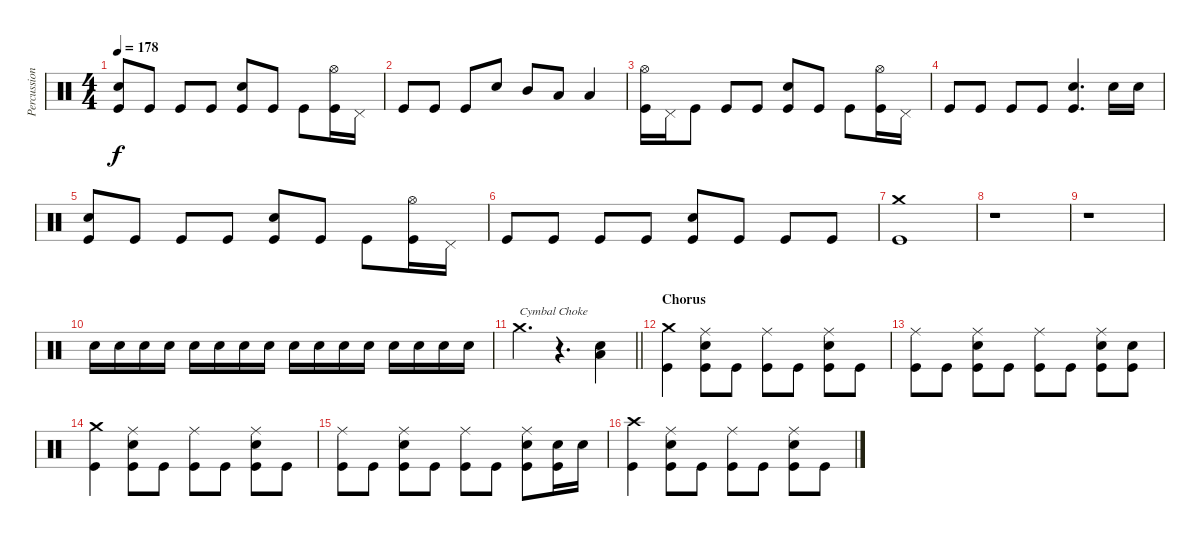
\track ("Percussion" "Percussion") {instrument percussion}
\staff {score}
\articulation defaults
\ts (4 4)
\tempo 178
\clef neutral
\ks c
("Electric Snare (hit)" "Kick (hit)").8{dy f} "Kick (hit)".8 "Kick (hit)".8 "Kick (hit)".8 ("Electric Snare (hit)" "Kick (hit)").8 "Kick (hit)".8 "Kick (hit)".8 ("Hi-Hat (open)" "Kick (hit)").16 "Pedal Hi-Hat (hit)".16 |
"Kick (hit)".8 "Kick (hit)".8 "Kick (hit)".8 "Electric Snare (hit)".8 "Mid Tom (hit)".8 "Low Tom (hit)".8 "Low Floor Tom (hit)".4 |
("Hi-Hat (open)" "Kick (hit)").16 "Pedal Hi-Hat (hit)".16 "Kick (hit)".8 "Kick (hit)".8 "Kick (hit)".8 ("Electric Snare (hit)" "Kick (hit)").8 "Kick (hit)".8 "Kick (hit)".8 ("Hi-Hat (open)" "Kick (hit)").16 "Pedal Hi-Hat (hit)".16 |
"Kick (hit)".8 "Kick (hit)".8 "Kick (hit)".8 "Kick (hit)".8 ("Electric Snare (hit)" "Kick (hit)").4{d} "Electric Snare (hit)".16 "Electric Snare (hit)".16 |
("Electric Snare (hit)" "Kick (hit)").8 "Kick (hit)".8 "Kick (hit)".8 "Kick (hit)".8 ("Electric Snare (hit)" "Kick (hit)").8 "Kick (hit)".8 "Kick (hit)".8 ("Hi-Hat (open)" "Kick (hit)").16 "Pedal Hi-Hat (hit)".16 |
"Kick (hit)".8 "Kick (hit)".8 "Kick (hit)".8 "Kick (hit)".8 ("Electric Snare (hit)" "Kick (hit)").8 "Kick (hit)".8 "Kick (hit)".8 "Kick (hit)".8 |
("Crash medium (hit)" "Kick (hit)").1 |
r.1 |
r.1 |
"Electric Snare (hit)".16 "Electric Snare (hit)".16 "Electric Snare (hit)".16 "Electric Snare (hit)".16 "Electric Snare (hit)".16 "Electric Snare (hit)".16 "Electric Snare (hit)".16 "Electric Snare (hit)".16 "Electric Snare (hit)".16 "Electric Snare (hit)".16 "Electric Snare (hit)".16 "Electric Snare (hit)".16 "Electric Snare (hit)".16 "Electric Snare (hit)".16 "Electric Snare (hit)".16 "Electric Snare (hit)".16 |
\barLineRight lightlight "Crash medium (hit)".4{d txt "Cymbal Choke"}
r.4{d volume 0} ("Electric Snare (hit)" "Low Floor Tom (hit)").4{volume 13} |
\section ("" "Chorus")
("Crash medium (hit)" "Kick (hit)").4 ("Ride (middle)" "Electric Snare (hit)" "Kick (hit)").8 "Kick (hit)".8 ("Ride (middle)" "Kick (hit)").8 "Kick (hit)".8 ("Ride (middle)" "Electric Snare (hit)" "Kick (hit)").8 "Kick (hit)".8 |
("Ride (middle)" "Kick (hit)").8 "Kick (hit)".8 ("Ride (middle)" "Electric Snare (hit)" "Kick (hit)").8 "Kick (hit)".8 ("Ride (middle)" "Kick (hit)").8 "Kick (hit)".8 ("Ride (middle)" "Electric Snare (hit)" "Kick (hit)").8 ("Electric Snare (hit)" "Kick (hit)").8 |
("Crash medium (hit)" "Kick (hit)").4 ("Ride (middle)" "Electric Snare (hit)" "Kick (hit)").8 "Kick (hit)".8 ("Ride (middle)" "Kick (hit)").8 "Kick (hit)".8 ("Ride (middle)" "Electric Snare (hit)" "Kick (hit)").8 "Kick (hit)".8 |
("Ride (middle)" "Kick (hit)").8 "Kick (hit)".8 ("Ride (middle)" "Electric Snare (hit)" "Kick (hit)").8 "Kick (hit)".8 ("Ride (middle)" "Kick (hit)").8 "Kick (hit)".8 ("Ride (middle)" "Electric Snare (hit)" "Kick (hit)").8 ("Electric Snare (hit)" "Kick (hit)").16 "Electric Snare (hit)".16 |
("Crash high (hit)" "Kick (hit)").4 ("Ride (middle)" "Electric Snare (hit)" "Kick (hit)").8 "Kick (hit)".8 ("Ride (middle)" "Kick (hit)").8 "Kick (hit)".8 ("Ride (middle)" "Electric Snare (hit)" "Kick (hit)").8 "Kick (hit)".8
